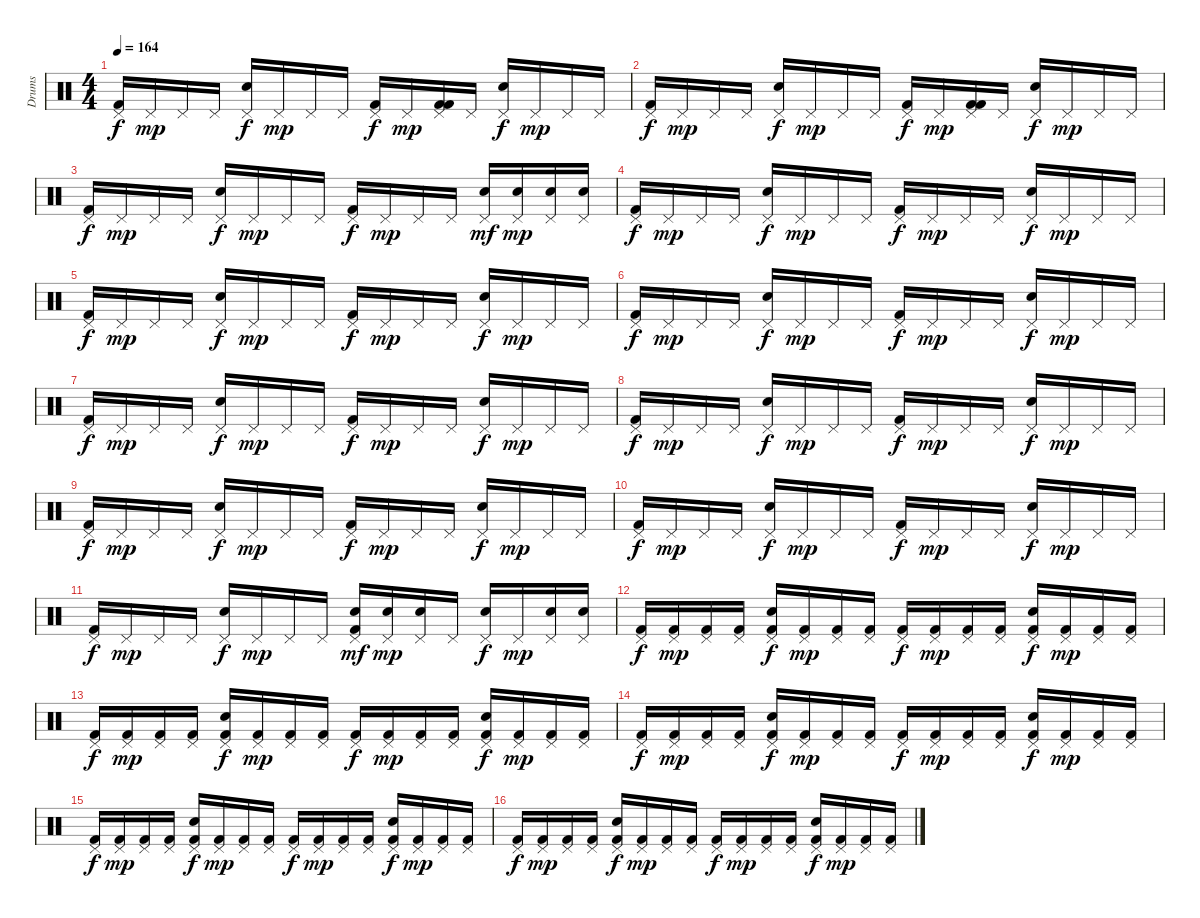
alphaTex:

\track ("Drums" "Drums") {instrument percussion}
\staff {score}
\articulation defaults
\ts (4 4)
\tempo 164
\clef neutral
\ks c
("Pedal Hi-Hat (hit)" "Kick (hit) 2").16{dy f} "Pedal Hi-Hat (hit)".16{dy mp} "Pedal Hi-Hat (hit)".16 "Pedal Hi-Hat (hit)".16 ("Pedal Hi-Hat (hit)" "Snare (hit) 2").16{dy f} "Pedal Hi-Hat (hit)".16{dy mp} "Pedal Hi-Hat (hit)".16 "Pedal Hi-Hat (hit)".16 ("Pedal Hi-Hat (hit)" "Kick (hit) 2").16{dy f} "Pedal Hi-Hat (hit)".16{dy mp} ("Pedal Hi-Hat (hit)" "Kick (hit) 2" "Kick (hit) 2").16 "Pedal Hi-Hat (hit)".16 ("Pedal Hi-Hat (hit)" "Snare (hit) 2").16{dy f} "Pedal Hi-Hat (hit)".16{dy mp} "Pedal Hi-Hat (hit)".16 "Pedal Hi-Hat (hit)".16 |
("Pedal Hi-Hat (hit)" "Kick (hit) 2").16{dy f} "Pedal Hi-Hat (hit)".16{dy mp} "Pedal Hi-Hat (hit)".16 "Pedal Hi-Hat (hit)".16 ("Pedal Hi-Hat (hit)" "Snare (hit) 2").16{dy f} "Pedal Hi-Hat (hit)".16{dy mp} "Pedal Hi-Hat (hit)".16 "Pedal Hi-Hat (hit)".16 ("Pedal Hi-Hat (hit)" "Kick (hit) 2").16{dy f} "Pedal Hi-Hat (hit)".16{dy mp} ("Pedal Hi-Hat (hit)" "Kick (hit) 2" "Kick (hit) 2").16 "Pedal Hi-Hat (hit)".16 ("Pedal Hi-Hat (hit)" "Snare (hit) 2").16{dy f} "Pedal Hi-Hat (hit)".16{dy mp} "Pedal Hi-Hat (hit)".16 "Pedal Hi-Hat (hit)".16 |
("Pedal Hi-Hat (hit)" "Kick (hit) 2").16{dy f} "Pedal Hi-Hat (hit)".16{dy mp} "Pedal Hi-Hat (hit)".16 "Pedal Hi-Hat (hit)".16 ("Pedal Hi-Hat (hit)" "Snare (hit) 2").16{dy f} "Pedal Hi-Hat (hit)".16{dy mp} "Pedal Hi-Hat (hit)".16 "Pedal Hi-Hat (hit)".16 ("Pedal Hi-Hat (hit)" "Kick (hit) 2").16{dy f} "Pedal Hi-Hat (hit)".16{dy mp} "Pedal Hi-Hat (hit)".16 "Pedal Hi-Hat (hit)".16 ("Snare (hit) 2" "Pedal Hi-Hat (hit)").16{dy mf} ("Snare (hit) 2" "Pedal Hi-Hat (hit)").16{dy mp} ("Snare (hit) 2" "Pedal Hi-Hat (hit)").16 ("Snare (hit) 2" "Pedal Hi-Hat (hit)").16 |
("Pedal Hi-Hat (hit)" "Kick (hit) 2").16{dy f} "Pedal Hi-Hat (hit)".16{dy mp} "Pedal Hi-Hat (hit)".16 "Pedal Hi-Hat (hit)".16 ("Pedal Hi-Hat (hit)" "Snare (hit) 2").16{dy f} "Pedal Hi-Hat (hit)".16{dy mp} "Pedal Hi-Hat (hit)".16 "Pedal Hi-Hat (hit)".16 ("Pedal Hi-Hat (hit)" "Kick (hit) 2").16{dy f} "Pedal Hi-Hat (hit)".16{dy mp} "Pedal Hi-Hat (hit)".16 "Pedal Hi-Hat (hit)".16 ("Pedal Hi-Hat (hit)" "Snare (hit) 2").16{dy f} "Pedal Hi-Hat (hit)".16{dy mp} "Pedal Hi-Hat (hit)".16 "Pedal Hi-Hat (hit)".16 |
("Pedal Hi-Hat (hit)" "Kick (hit) 2").16{dy f} "Pedal Hi-Hat (hit)".16{dy mp} "Pedal Hi-Hat (hit)".16 "Pedal Hi-Hat (hit)".16 ("Pedal Hi-Hat (hit)" "Snare (hit) 2").16{dy f} "Pedal Hi-Hat (hit)".16{dy mp} "Pedal Hi-Hat (hit)".16 "Pedal Hi-Hat (hit)".16 ("Pedal Hi-Hat (hit)" "Kick (hit) 2").16{dy f} "Pedal Hi-Hat (hit)".16{dy mp} "Pedal Hi-Hat (hit)".16 "Pedal Hi-Hat (hit)".16 ("Pedal Hi-Hat (hit)" "Snare (hit) 2").16{dy f} "Pedal Hi-Hat (hit)".16{dy mp} "Pedal Hi-Hat (hit)".16 "Pedal Hi-Hat (hit)".16 |
("Pedal Hi-Hat (hit)" "Kick (hit) 2").16{dy f} "Pedal Hi-Hat (hit)".16{dy mp} "Pedal Hi-Hat (hit)".16 "Pedal Hi-Hat (hit)".16 ("Pedal Hi-Hat (hit)" "Snare (hit) 2").16{dy f} "Pedal Hi-Hat (hit)".16{dy mp} "Pedal Hi-Hat (hit)".16 "Pedal Hi-Hat (hit)".16 ("Pedal Hi-Hat (hit)" "Kick (hit) 2").16{dy f} "Pedal Hi-Hat (hit)".16{dy mp} "Pedal Hi-Hat (hit)".16 "Pedal Hi-Hat (hit)".16 ("Pedal Hi-Hat (hit)" "Snare (hit) 2").16{dy f} "Pedal Hi-Hat (hit)".16{dy mp} "Pedal Hi-Hat (hit)".16 "Pedal Hi-Hat (hit)".16 |
("Pedal Hi-Hat (hit)" "Kick (hit) 2").16{dy f} "Pedal Hi-Hat (hit)".16{dy mp} "Pedal Hi-Hat (hit)".16 "Pedal Hi-Hat (hit)".16 ("Pedal Hi-Hat (hit)" "Snare (hit) 2").16{dy f} "Pedal Hi-Hat (hit)".16{dy mp} "Pedal Hi-Hat (hit)".16 "Pedal Hi-Hat (hit)".16 ("Pedal Hi-Hat (hit)" "Kick (hit) 2").16{dy f} "Pedal Hi-Hat (hit)".16{dy mp} "Pedal Hi-Hat (hit)".16 "Pedal Hi-Hat (hit)".16 ("Pedal Hi-Hat (hit)" "Snare (hit) 2").16{dy f} "Pedal Hi-Hat (hit)".16{dy mp} "Pedal Hi-Hat (hit)".16 "Pedal Hi-Hat (hit)".16 |
("Pedal Hi-Hat (hit)" "Kick (hit) 2").16{dy f} "Pedal Hi-Hat (hit)".16{dy mp} "Pedal Hi-Hat (hit)".16 "Pedal Hi-Hat (hit)".16 ("Pedal Hi-Hat (hit)" "Snare (hit) 2").16{dy f} "Pedal Hi-Hat (hit)".16{dy mp} "Pedal Hi-Hat (hit)".16 "Pedal Hi-Hat (hit)".16 ("Pedal Hi-Hat (hit)" "Kick (hit) 2").16{dy f} "Pedal Hi-Hat (hit)".16{dy mp} "Pedal Hi-Hat (hit)".16 "Pedal Hi-Hat (hit)".16 ("Pedal Hi-Hat (hit)" "Snare (hit) 2").16{dy f} "Pedal Hi-Hat (hit)".16{dy mp} "Pedal Hi-Hat (hit)".16 "Pedal Hi-Hat (hit)".16 |
("Pedal Hi-Hat (hit)" "Kick (hit) 2").16{dy f} "Pedal Hi-Hat (hit)".16{dy mp} "Pedal Hi-Hat (hit)".16 "Pedal Hi-Hat (hit)".16 ("Pedal Hi-Hat (hit)" "Snare (hit) 2").16{dy f} "Pedal Hi-Hat (hit)".16{dy mp} "Pedal Hi-Hat (hit)".16 "Pedal Hi-Hat (hit)".16 ("Pedal Hi-Hat (hit)" "Kick (hit) 2").16{dy f} "Pedal Hi-Hat (hit)".16{dy mp} "Pedal Hi-Hat (hit)".16 "Pedal Hi-Hat (hit)".16 ("Pedal Hi-Hat (hit)" "Snare (hit) 2").16{dy f} "Pedal Hi-Hat (hit)".16{dy mp} "Pedal Hi-Hat (hit)".16 "Pedal Hi-Hat (hit)".16 |
("Pedal Hi-Hat (hit)" "Kick (hit) 2").16{dy f} "Pedal Hi-Hat (hit)".16{dy mp} "Pedal Hi-Hat (hit)".16 "Pedal Hi-Hat (hit)".16 ("Pedal Hi-Hat (hit)" "Snare (hit) 2").16{dy f} "Pedal Hi-Hat (hit)".16{dy mp} "Pedal Hi-Hat (hit)".16 "Pedal Hi-Hat (hit)".16 ("Pedal Hi-Hat (hit)" "Kick (hit) 2").16{dy f} "Pedal Hi-Hat (hit)".16{dy mp} "Pedal Hi-Hat (hit)".16 "Pedal Hi-Hat (hit)".16 ("Pedal Hi-Hat (hit)" "Snare (hit) 2").16{dy f} "Pedal Hi-Hat (hit)".16{dy mp} "Pedal Hi-Hat (hit)".16 "Pedal Hi-Hat (hit)".16 |
("Pedal Hi-Hat (hit)" "Kick (hit) 2").16{dy f} "Pedal Hi-Hat (hit)".16{dy mp} "Pedal Hi-Hat (hit)".16 "Pedal Hi-Hat (hit)".16 ("Pedal Hi-Hat (hit)" "Snare (hit) 2").16{dy f} "Pedal Hi-Hat (hit)".16{dy mp} "Pedal Hi-Hat (hit)".16 "Pedal Hi-Hat (hit)".16 ("Snare (hit) 2" "Pedal Hi-Hat (hit)" "Kick (hit) 2").16{dy mf} ("Snare (hit) 2" "Pedal Hi-Hat (hit)").16{dy mp} ("Snare (hit) 2" "Pedal Hi-Hat (hit)").16 "Pedal Hi-Hat (hit)".16 ("Snare (hit) 2" "Pedal Hi-Hat (hit)").16{dy f} "Pedal Hi-Hat (hit)".16{dy mp} ("Snare (hit) 2" "Pedal Hi-Hat (hit)").16 ("Snare (hit) 2" "Pedal Hi-Hat (hit)").16 |
("Pedal Hi-Hat (hit)" "Kick (hit) 2").16{dy f} ("Pedal Hi-Hat (hit)" "Kick (hit) 2").16{dy mp} ("Pedal Hi-Hat (hit)" "Kick (hit) 2").16 ("Pedal Hi-Hat (hit)" "Kick (hit) 2").16 ("Pedal Hi-Hat (hit)" "Snare (hit) 2" "Kick (hit) 2").16{dy f} ("Pedal Hi-Hat (hit)" "Kick (hit) 2").16{dy mp} ("Pedal Hi-Hat (hit)" "Kick (hit) 2").16 ("Pedal Hi-Hat (hit)" "Kick (hit) 2").16 ("Pedal Hi-Hat (hit)" "Kick (hit) 2").16{dy f} ("Pedal Hi-Hat (hit)" "Kick (hit) 2").16{dy mp} ("Pedal Hi-Hat (hit)" "Kick (hit) 2").16 ("Pedal Hi-Hat (hit)" "Kick (hit) 2").16 ("Pedal Hi-Hat (hit)" "Snare (hit) 2" "Kick (hit) 2").16{dy f} ("Pedal Hi-Hat (hit)" "Kick (hit) 2").16{dy mp} ("Pedal Hi-Hat (hit)" "Kick (hit) 2").16 ("Pedal Hi-Hat (hit)" "Kick (hit) 2").16 |
("Pedal Hi-Hat (hit)" "Kick (hit) 2").16{dy f} ("Pedal Hi-Hat (hit)" "Kick (hit) 2").16{dy mp} ("Pedal Hi-Hat (hit)" "Kick (hit) 2").16 ("Pedal Hi-Hat (hit)" "Kick (hit) 2").16 ("Pedal Hi-Hat (hit)" "Snare (hit) 2" "Kick (hit) 2").16{dy f} ("Pedal Hi-Hat (hit)" "Kick (hit) 2").16{dy mp} ("Pedal Hi-Hat (hit)" "Kick (hit) 2").16 ("Pedal Hi-Hat (hit)" "Kick (hit) 2").16 ("Pedal Hi-Hat (hit)" "Kick (hit) 2").16{dy f} ("Pedal Hi-Hat (hit)" "Kick (hit) 2").16{dy mp} ("Pedal Hi-Hat (hit)" "Kick (hit) 2").16 ("Pedal Hi-Hat (hit)" "Kick (hit) 2").16 ("Pedal Hi-Hat (hit)" "Snare (hit) 2" "Kick (hit) 2").16{dy f} ("Pedal Hi-Hat (hit)" "Kick (hit) 2").16{dy mp} ("Pedal Hi-Hat (hit)" "Kick (hit) 2").16 ("Pedal Hi-Hat (hit)" "Kick (hit) 2").16 |
("Pedal Hi-Hat (hit)" "Kick (hit) 2").16{dy f} ("Pedal Hi-Hat (hit)" "Kick (hit) 2").16{dy mp} ("Pedal Hi-Hat (hit)" "Kick (hit) 2").16 ("Pedal Hi-Hat (hit)" "Kick (hit) 2").16 ("Pedal Hi-Hat (hit)" "Snare (hit) 2" "Kick (hit) 2").16{dy f} ("Pedal Hi-Hat (hit)" "Kick (hit) 2").16{dy mp} ("Pedal Hi-Hat (hit)" "Kick (hit) 2").16 ("Pedal Hi-Hat (hit)" "Kick (hit) 2").16 ("Pedal Hi-Hat (hit)" "Kick (hit) 2").16{dy f} ("Pedal Hi-Hat (hit)" "Kick (hit) 2").16{dy mp} ("Pedal Hi-Hat (hit)" "Kick (hit) 2").16 ("Pedal Hi-Hat (hit)" "Kick (hit) 2").16 ("Pedal Hi-Hat (hit)" "Snare (hit) 2" "Kick (hit) 2").16{dy f} ("Pedal Hi-Hat (hit)" "Kick (hit) 2").16{dy mp} ("Pedal Hi-Hat (hit)" "Kick (hit) 2").16 ("Pedal Hi-Hat (hit)" "Kick (hit) 2").16 |
("Pedal Hi-Hat (hit)" "Kick (hit) 2").16{dy f} ("Pedal Hi-Hat (hit)" "Kick (hit) 2").16{dy mp} ("Pedal Hi-Hat (hit)" "Kick (hit) 2").16 ("Pedal Hi-Hat (hit)" "Kick (hit) 2").16 ("Pedal Hi-Hat (hit)" "Snare (hit) 2" "Kick (hit) 2").16{dy f} ("Pedal Hi-Hat (hit)" "Kick (hit) 2").16{dy mp} ("Pedal Hi-Hat (hit)" "Kick (hit) 2").16 ("Pedal Hi-Hat (hit)" "Kick (hit) 2").16 ("Pedal Hi-Hat (hit)" "Kick (hit) 2").16{dy f} ("Pedal Hi-Hat (hit)" "Kick (hit) 2").16{dy mp} ("Pedal Hi-Hat (hit)" "Kick (hit) 2").16 ("Pedal Hi-Hat (hit)" "Kick (hit) 2").16 ("Pedal Hi-Hat (hit)" "Snare (hit) 2" "Kick (hit) 2").16{dy f} ("Pedal Hi-Hat (hit)" "Kick (hit) 2").16{dy mp} ("Pedal Hi-Hat (hit)" "Kick (hit) 2").16 ("Pedal Hi-Hat (hit)" "Kick (hit) 2").16 |
("Pedal Hi-Hat (hit)" "Kick (hit) 2").16{dy f} ("Pedal Hi-Hat (hit)" "Kick (hit) 2").16{dy mp} ("Pedal Hi-Hat (hit)" "Kick (hit) 2").16 ("Pedal Hi-Hat (hit)" "Kick (hit) 2").16 ("Pedal Hi-Hat (hit)" "Snare (hit) 2" "Kick (hit) 2").16{dy f} ("Pedal Hi-Hat (hit)" "Kick (hit) 2").16{dy mp} ("Pedal Hi-Hat (hit)" "Kick (hit) 2").16 ("Pedal Hi-Hat (hit)" "Kick (hit) 2").16 ("Pedal Hi-Hat (hit)" "Kick (hit) 2").16{dy f} ("Pedal Hi-Hat (hit)" "Kick (hit) 2").16{dy mp} ("Pedal Hi-Hat (hit)" "Kick (hit) 2").16 ("Pedal Hi-Hat (hit)" "Kick (hit) 2").16 ("Pedal Hi-Hat (hit)" "Snare (hit) 2" "Kick (hit) 2").16{dy f} ("Pedal Hi-Hat (hit)" "Kick (hit) 2").16{dy mp} ("Pedal Hi-Hat (hit)" "Kick (hit) 2").16 ("Pedal Hi-Hat (hit)" "Kick (hit) 2").16
